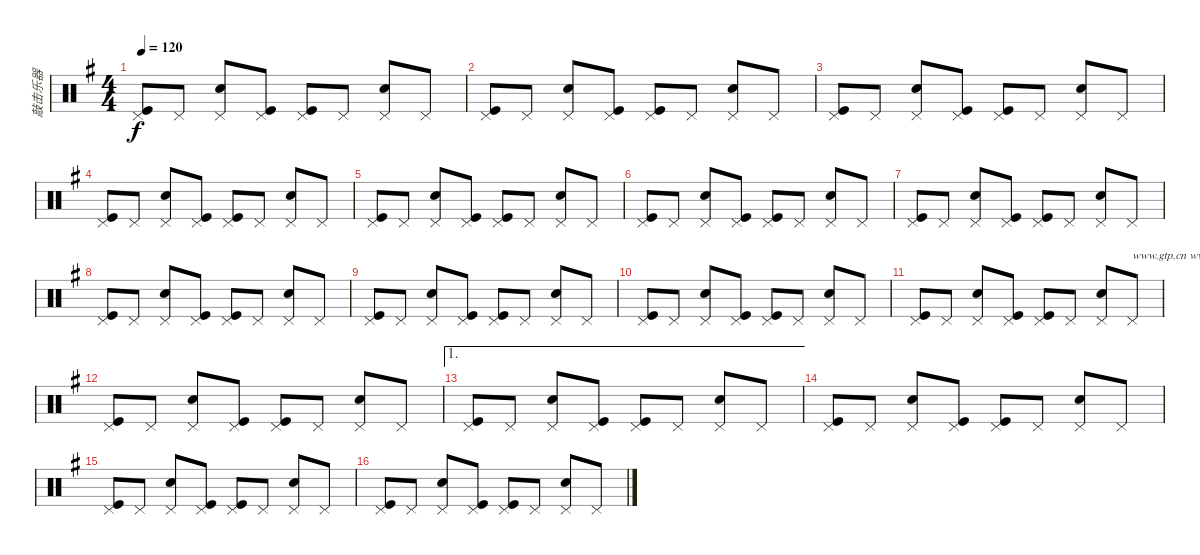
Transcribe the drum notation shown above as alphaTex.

\track ("敲击乐器" "敲击乐器") {instrument percussion}
\staff {score}
\articulation defaults
\ts (4 4)
\tempo 120
\clef neutral
\ks g
("Kick (hit)" "Pedal Hi-Hat (hit)").8{dy f} "Pedal Hi-Hat (hit)".8 ("Snare (hit) 2" "Pedal Hi-Hat (hit)").8 ("Kick (hit)" "Pedal Hi-Hat (hit)").8 ("Kick (hit)" "Pedal Hi-Hat (hit)").8 "Pedal Hi-Hat (hit)".8 ("Snare (hit) 2" "Pedal Hi-Hat (hit)").8 "Pedal Hi-Hat (hit)".8 |
("Kick (hit)" "Pedal Hi-Hat (hit)").8 "Pedal Hi-Hat (hit)".8 ("Snare (hit) 2" "Pedal Hi-Hat (hit)").8 ("Kick (hit)" "Pedal Hi-Hat (hit)").8 ("Kick (hit)" "Pedal Hi-Hat (hit)").8 "Pedal Hi-Hat (hit)".8 ("Snare (hit) 2" "Pedal Hi-Hat (hit)").8 "Pedal Hi-Hat (hit)".8 |
("Kick (hit)" "Pedal Hi-Hat (hit)").8 "Pedal Hi-Hat (hit)".8 ("Snare (hit) 2" "Pedal Hi-Hat (hit)").8 ("Kick (hit)" "Pedal Hi-Hat (hit)").8 ("Kick (hit)" "Pedal Hi-Hat (hit)").8 "Pedal Hi-Hat (hit)".8 ("Snare (hit) 2" "Pedal Hi-Hat (hit)").8 "Pedal Hi-Hat (hit)".8 |
("Kick (hit)" "Pedal Hi-Hat (hit)").8 "Pedal Hi-Hat (hit)".8 ("Snare (hit) 2" "Pedal Hi-Hat (hit)").8 ("Kick (hit)" "Pedal Hi-Hat (hit)").8 ("Kick (hit)" "Pedal Hi-Hat (hit)").8 "Pedal Hi-Hat (hit)".8 ("Snare (hit) 2" "Pedal Hi-Hat (hit)").8 "Pedal Hi-Hat (hit)".8 |
("Kick (hit)" "Pedal Hi-Hat (hit)").8 "Pedal Hi-Hat (hit)".8 ("Snare (hit) 2" "Pedal Hi-Hat (hit)").8 ("Kick (hit)" "Pedal Hi-Hat (hit)").8 ("Kick (hit)" "Pedal Hi-Hat (hit)").8 "Pedal Hi-Hat (hit)".8 ("Snare (hit) 2" "Pedal Hi-Hat (hit)").8 "Pedal Hi-Hat (hit)".8 |
("Kick (hit)" "Pedal Hi-Hat (hit)").8 "Pedal Hi-Hat (hit)".8 ("Snare (hit) 2" "Pedal Hi-Hat (hit)").8 ("Kick (hit)" "Pedal Hi-Hat (hit)").8 ("Kick (hit)" "Pedal Hi-Hat (hit)").8 "Pedal Hi-Hat (hit)".8 ("Snare (hit) 2" "Pedal Hi-Hat (hit)").8 "Pedal Hi-Hat (hit)".8 |
("Kick (hit)" "Pedal Hi-Hat (hit)").8 "Pedal Hi-Hat (hit)".8 ("Snare (hit) 2" "Pedal Hi-Hat (hit)").8 ("Kick (hit)" "Pedal Hi-Hat (hit)").8 ("Kick (hit)" "Pedal Hi-Hat (hit)").8 "Pedal Hi-Hat (hit)".8 ("Snare (hit) 2" "Pedal Hi-Hat (hit)").8 "Pedal Hi-Hat (hit)".8 |
("Kick (hit)" "Pedal Hi-Hat (hit)").8 "Pedal Hi-Hat (hit)".8 ("Snare (hit) 2" "Pedal Hi-Hat (hit)").8 ("Kick (hit)" "Pedal Hi-Hat (hit)").8 ("Kick (hit)" "Pedal Hi-Hat (hit)").8 "Pedal Hi-Hat (hit)".8 ("Snare (hit) 2" "Pedal Hi-Hat (hit)").8 "Pedal Hi-Hat (hit)".8 |
("Kick (hit)" "Pedal Hi-Hat (hit)").8 "Pedal Hi-Hat (hit)".8 ("Snare (hit) 2" "Pedal Hi-Hat (hit)").8 ("Kick (hit)" "Pedal Hi-Hat (hit)").8 ("Kick (hit)" "Pedal Hi-Hat (hit)").8 "Pedal Hi-Hat (hit)".8 ("Snare (hit) 2" "Pedal Hi-Hat (hit)").8 "Pedal Hi-Hat (hit)".8 |
("Kick (hit)" "Pedal Hi-Hat (hit)").8 "Pedal Hi-Hat (hit)".8 ("Snare (hit) 2" "Pedal Hi-Hat (hit)").8 ("Kick (hit)" "Pedal Hi-Hat (hit)").8 ("Kick (hit)" "Pedal Hi-Hat (hit)").8 "Pedal Hi-Hat (hit)".8 ("Snare (hit) 2" "Pedal Hi-Hat (hit)").8 "Pedal Hi-Hat (hit)".8 |
("Kick (hit)" "Pedal Hi-Hat (hit)").8 "Pedal Hi-Hat (hit)".8 ("Snare (hit) 2" "Pedal Hi-Hat (hit)").8 ("Kick (hit)" "Pedal Hi-Hat (hit)").8 ("Kick (hit)" "Pedal Hi-Hat (hit)").8 "Pedal Hi-Hat (hit)".8 ("Snare (hit) 2" "Pedal Hi-Hat (hit)").8 "Pedal Hi-Hat (hit)".8{txt "www.gtp.cn www.51gtp.com联合为您提供优秀的GTP!"} |
("Kick (hit)" "Pedal Hi-Hat (hit)").8 "Pedal Hi-Hat (hit)".8 ("Snare (hit) 2" "Pedal Hi-Hat (hit)").8 ("Kick (hit)" "Pedal Hi-Hat (hit)").8 ("Kick (hit)" "Pedal Hi-Hat (hit)").8 "Pedal Hi-Hat (hit)".8 ("Snare (hit) 2" "Pedal Hi-Hat (hit)").8 "Pedal Hi-Hat (hit)".8 |
\ae 1
("Kick (hit)" "Pedal Hi-Hat (hit)").8 "Pedal Hi-Hat (hit)".8 ("Snare (hit) 2" "Pedal Hi-Hat (hit)").8 ("Kick (hit)" "Pedal Hi-Hat (hit)").8 ("Kick (hit)" "Pedal Hi-Hat (hit)").8 "Pedal Hi-Hat (hit)".8 ("Snare (hit) 2" "Pedal Hi-Hat (hit)").8 "Pedal Hi-Hat (hit)".8 |
("Kick (hit)" "Pedal Hi-Hat (hit)").8 "Pedal Hi-Hat (hit)".8 ("Snare (hit) 2" "Pedal Hi-Hat (hit)").8 ("Kick (hit)" "Pedal Hi-Hat (hit)").8 ("Kick (hit)" "Pedal Hi-Hat (hit)").8 "Pedal Hi-Hat (hit)".8 ("Snare (hit) 2" "Pedal Hi-Hat (hit)").8 "Pedal Hi-Hat (hit)".8 |
("Kick (hit)" "Pedal Hi-Hat (hit)").8 "Pedal Hi-Hat (hit)".8 ("Snare (hit) 2" "Pedal Hi-Hat (hit)").8 ("Kick (hit)" "Pedal Hi-Hat (hit)").8 ("Kick (hit)" "Pedal Hi-Hat (hit)").8 "Pedal Hi-Hat (hit)".8 ("Snare (hit) 2" "Pedal Hi-Hat (hit)").8 "Pedal Hi-Hat (hit)".8 |
("Kick (hit)" "Pedal Hi-Hat (hit)").8 "Pedal Hi-Hat (hit)".8 ("Snare (hit) 2" "Pedal Hi-Hat (hit)").8 ("Kick (hit)" "Pedal Hi-Hat (hit)").8 ("Kick (hit)" "Pedal Hi-Hat (hit)").8 "Pedal Hi-Hat (hit)".8 ("Snare (hit) 2" "Pedal Hi-Hat (hit)").8 "Pedal Hi-Hat (hit)".8
